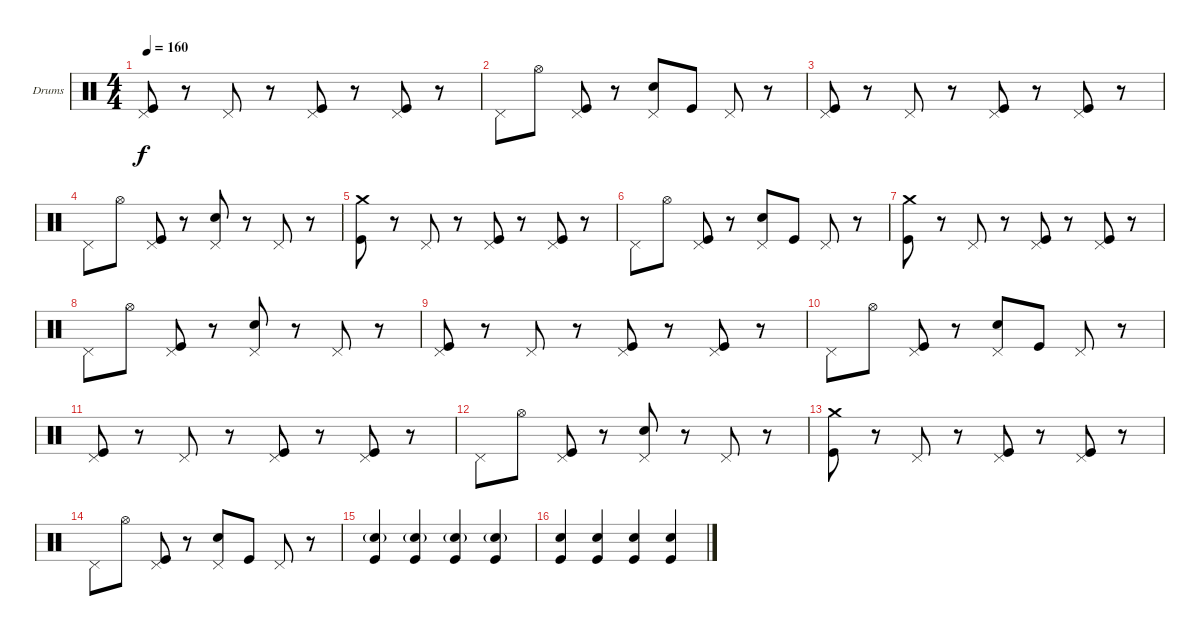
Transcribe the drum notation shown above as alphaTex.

\bracketExtendMode groupsimilarinstruments
\firstSystemTrackNameOrientation horizontal
\otherSystemsTrackNameOrientation horizontal
\track ("Drumkit" "Drums") {instrument percussion}
\staff {score}
\articulation defaults
\ts (4 4)
\tempo 160
\clef neutral
\ks c
("Pedal Hi-Hat (hit)" "Kick (hit)").8{dy f} r.8 "Pedal Hi-Hat (hit)".8 r.8 ("Pedal Hi-Hat (hit)" "Kick (hit)").8 r.8 ("Pedal Hi-Hat (hit)" "Kick (hit)").8 r.8 |
"Pedal Hi-Hat (hit)".8 "Hi-Hat (open)".8 ("Pedal Hi-Hat (hit)" "Kick (hit)").8 r.8 ("Pedal Hi-Hat (hit)" "Snare (hit) 2").8 "Kick (hit)".8 "Pedal Hi-Hat (hit)".8 r.8 |
("Pedal Hi-Hat (hit)" "Kick (hit)").8 r.8 "Pedal Hi-Hat (hit)".8 r.8 ("Pedal Hi-Hat (hit)" "Kick (hit)").8 r.8 ("Pedal Hi-Hat (hit)" "Kick (hit)").8 r.8 |
"Pedal Hi-Hat (hit)".8 "Hi-Hat (open)".8 ("Pedal Hi-Hat (hit)" "Kick (hit)").8 r.8 ("Pedal Hi-Hat (hit)" "Snare (hit) 2").8 r.8 "Pedal Hi-Hat (hit)".8 r.8 |
("Crash medium (hit)" "Kick (hit)").8 r.8 "Pedal Hi-Hat (hit)".8 r.8 ("Pedal Hi-Hat (hit)" "Kick (hit)").8 r.8 ("Pedal Hi-Hat (hit)" "Kick (hit)").8 r.8 |
"Pedal Hi-Hat (hit)".8 "Hi-Hat (open)".8 ("Pedal Hi-Hat (hit)" "Kick (hit)").8 r.8 ("Pedal Hi-Hat (hit)" "Snare (hit) 2").8 "Kick (hit)".8 "Pedal Hi-Hat (hit)".8 r.8 |
("Crash medium (hit)" "Kick (hit)").8 r.8 "Pedal Hi-Hat (hit)".8 r.8 ("Pedal Hi-Hat (hit)" "Kick (hit)").8 r.8 ("Pedal Hi-Hat (hit)" "Kick (hit)").8 r.8 |
"Pedal Hi-Hat (hit)".8 "Hi-Hat (open)".8 ("Pedal Hi-Hat (hit)" "Kick (hit)").8 r.8 ("Pedal Hi-Hat (hit)" "Snare (hit) 2").8 r.8 "Pedal Hi-Hat (hit)".8 r.8 |
("Pedal Hi-Hat (hit)" "Kick (hit)").8 r.8 "Pedal Hi-Hat (hit)".8 r.8 ("Pedal Hi-Hat (hit)" "Kick (hit)").8 r.8 ("Pedal Hi-Hat (hit)" "Kick (hit)").8 r.8 |
"Pedal Hi-Hat (hit)".8 "Hi-Hat (open)".8 ("Pedal Hi-Hat (hit)" "Kick (hit)").8 r.8 ("Pedal Hi-Hat (hit)" "Snare (hit) 2").8 "Kick (hit)".8 "Pedal Hi-Hat (hit)".8 r.8 |
("Pedal Hi-Hat (hit)" "Kick (hit)").8 r.8 "Pedal Hi-Hat (hit)".8 r.8 ("Pedal Hi-Hat (hit)" "Kick (hit)").8 r.8 ("Pedal Hi-Hat (hit)" "Kick (hit)").8 r.8 |
"Pedal Hi-Hat (hit)".8 "Hi-Hat (open)".8 ("Pedal Hi-Hat (hit)" "Kick (hit)").8 r.8 ("Pedal Hi-Hat (hit)" "Snare (hit) 2").8 r.8 "Pedal Hi-Hat (hit)".8 r.8 |
("Crash medium (hit)" "Kick (hit)").8 r.8 "Pedal Hi-Hat (hit)".8 r.8 ("Pedal Hi-Hat (hit)" "Kick (hit)").8 r.8 ("Pedal Hi-Hat (hit)" "Kick (hit)").8 r.8 |
"Pedal Hi-Hat (hit)".8 "Hi-Hat (open)".8 ("Pedal Hi-Hat (hit)" "Kick (hit)").8 r.8 ("Pedal Hi-Hat (hit)" "Snare (hit) 2").8 "Kick (hit)".8 "Pedal Hi-Hat (hit)".8 r.8 |
("Snare (hit) 2"{g} "Kick (hit)").4 ("Snare (hit) 2"{g} "Kick (hit)").4 ("Snare (hit) 2"{g} "Kick (hit)").4 ("Snare (hit) 2"{g} "Kick (hit)").4 |
("Snare (hit) 2" "Kick (hit)").4 ("Snare (hit) 2" "Kick (hit)").4 ("Snare (hit) 2" "Kick (hit)").4 ("Snare (hit) 2" "Kick (hit)").4
